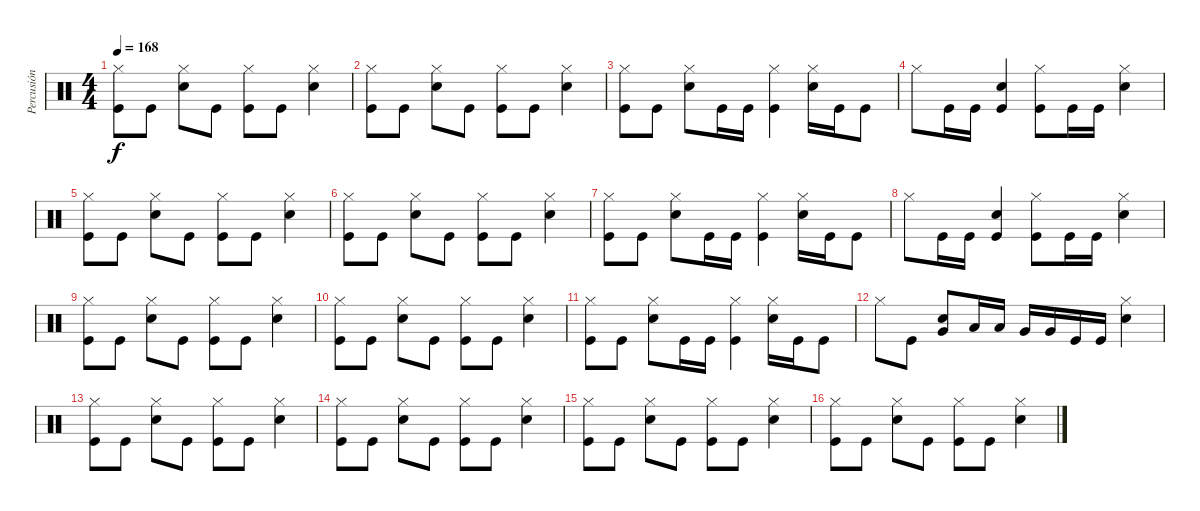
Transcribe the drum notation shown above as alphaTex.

\track ("Percusión" "Percusión") {instrument percussion}
\staff {score}
\articulation defaults
\ts (4 4)
\tempo 168
\clef neutral
\ks c
("Hi-Hat (closed)" "Kick (hit)").8{dy f} "Kick (hit)".8 ("Hi-Hat (closed)" "Snare (hit) 2").8 "Kick (hit)".8 ("Hi-Hat (closed)" "Kick (hit)").8 "Kick (hit)".8 ("Hi-Hat (closed)" "Snare (hit) 2").4 |
("Hi-Hat (closed)" "Kick (hit)").8 "Kick (hit)".8 ("Hi-Hat (closed)" "Snare (hit) 2").8 "Kick (hit)".8 ("Hi-Hat (closed)" "Kick (hit)").8 "Kick (hit)".8 ("Hi-Hat (closed)" "Snare (hit) 2").4 |
("Hi-Hat (closed)" "Kick (hit)").8 "Kick (hit)".8 ("Hi-Hat (closed)" "Snare (hit) 2").8 "Kick (hit)".16 "Kick (hit)".16 ("Hi-Hat (closed)" "Kick (hit)").4 ("Hi-Hat (closed)" "Snare (hit) 2").16 "Kick (hit)".16 "Kick (hit)".8 |
"Hi-Hat (closed)".8 "Kick (hit)".16 "Kick (hit)".16 ("Snare (hit) 2" "Kick (hit)").4 ("Hi-Hat (closed)" "Kick (hit)").8 "Kick (hit)".16 "Kick (hit)".16 ("Hi-Hat (closed)" "Snare (hit) 2").4 |
("Hi-Hat (closed)" "Kick (hit)").8 "Kick (hit)".8 ("Hi-Hat (closed)" "Snare (hit) 2").8 "Kick (hit)".8 ("Hi-Hat (closed)" "Kick (hit)").8 "Kick (hit)".8 ("Hi-Hat (closed)" "Snare (hit) 2").4 |
("Hi-Hat (closed)" "Kick (hit)").8 "Kick (hit)".8 ("Hi-Hat (closed)" "Snare (hit) 2").8 "Kick (hit)".8 ("Hi-Hat (closed)" "Kick (hit)").8 "Kick (hit)".8 ("Hi-Hat (closed)" "Snare (hit) 2").4 |
("Hi-Hat (closed)" "Kick (hit)").8 "Kick (hit)".8 ("Hi-Hat (closed)" "Snare (hit) 2").8 "Kick (hit)".16 "Kick (hit)".16 ("Hi-Hat (closed)" "Kick (hit)").4 ("Hi-Hat (closed)" "Snare (hit) 2").16 "Kick (hit)".16 "Kick (hit)".8 |
"Hi-Hat (closed)".8 "Kick (hit)".16 "Kick (hit)".16 ("Snare (hit) 2" "Kick (hit)").4 ("Hi-Hat (closed)" "Kick (hit)").8 "Kick (hit)".16 "Kick (hit)".16 ("Hi-Hat (closed)" "Snare (hit) 2").4 |
("Hi-Hat (closed)" "Kick (hit)").8 "Kick (hit)".8 ("Hi-Hat (closed)" "Snare (hit) 2").8 "Kick (hit)".8 ("Hi-Hat (closed)" "Kick (hit)").8 "Kick (hit)".8 ("Hi-Hat (closed)" "Snare (hit) 2").4 |
("Hi-Hat (closed)" "Kick (hit)").8 "Kick (hit)".8 ("Hi-Hat (closed)" "Snare (hit) 2").8 "Kick (hit)".8 ("Hi-Hat (closed)" "Kick (hit)").8 "Kick (hit)".8 ("Hi-Hat (closed)" "Snare (hit) 2").4 |
("Hi-Hat (closed)" "Kick (hit)").8 "Kick (hit)".8 ("Hi-Hat (closed)" "Snare (hit) 2").8 "Kick (hit)".16 "Kick (hit)".16 ("Hi-Hat (closed)" "Kick (hit)").4 ("Hi-Hat (closed)" "Snare (hit) 2").16 "Kick (hit)".16 "Kick (hit)".8 |
"Hi-Hat (closed)".8 "Kick (hit)".8 ("Snare (hit) 2" "Very Low Tom (hit)").8 "Low Tom (hit)".16 "Low Tom (hit)".16 "Very Low Tom (hit)".16 "Very Low Tom (hit)".16 "Kick (hit)".16 "Kick (hit)".16 ("Hi-Hat (closed)" "Snare (hit) 2").4 |
("Hi-Hat (closed)" "Kick (hit)").8 "Kick (hit)".8 ("Hi-Hat (closed)" "Snare (hit) 2").8 "Kick (hit)".8 ("Hi-Hat (closed)" "Kick (hit)").8 "Kick (hit)".8 ("Hi-Hat (closed)" "Snare (hit) 2").4 |
("Hi-Hat (closed)" "Kick (hit)").8 "Kick (hit)".8 ("Hi-Hat (closed)" "Snare (hit) 2").8 "Kick (hit)".8 ("Hi-Hat (closed)" "Kick (hit)").8 "Kick (hit)".8 ("Hi-Hat (closed)" "Snare (hit) 2").4 |
("Hi-Hat (closed)" "Kick (hit)").8 "Kick (hit)".8 ("Hi-Hat (closed)" "Snare (hit) 2").8 "Kick (hit)".8 ("Hi-Hat (closed)" "Kick (hit)").8 "Kick (hit)".8 ("Hi-Hat (closed)" "Snare (hit) 2").4 |
("Hi-Hat (closed)" "Kick (hit)").8 "Kick (hit)".8 ("Hi-Hat (closed)" "Snare (hit) 2").8 "Kick (hit)".8 ("Hi-Hat (closed)" "Kick (hit)").8 "Kick (hit)".8 ("Hi-Hat (closed)" "Snare (hit) 2").4
